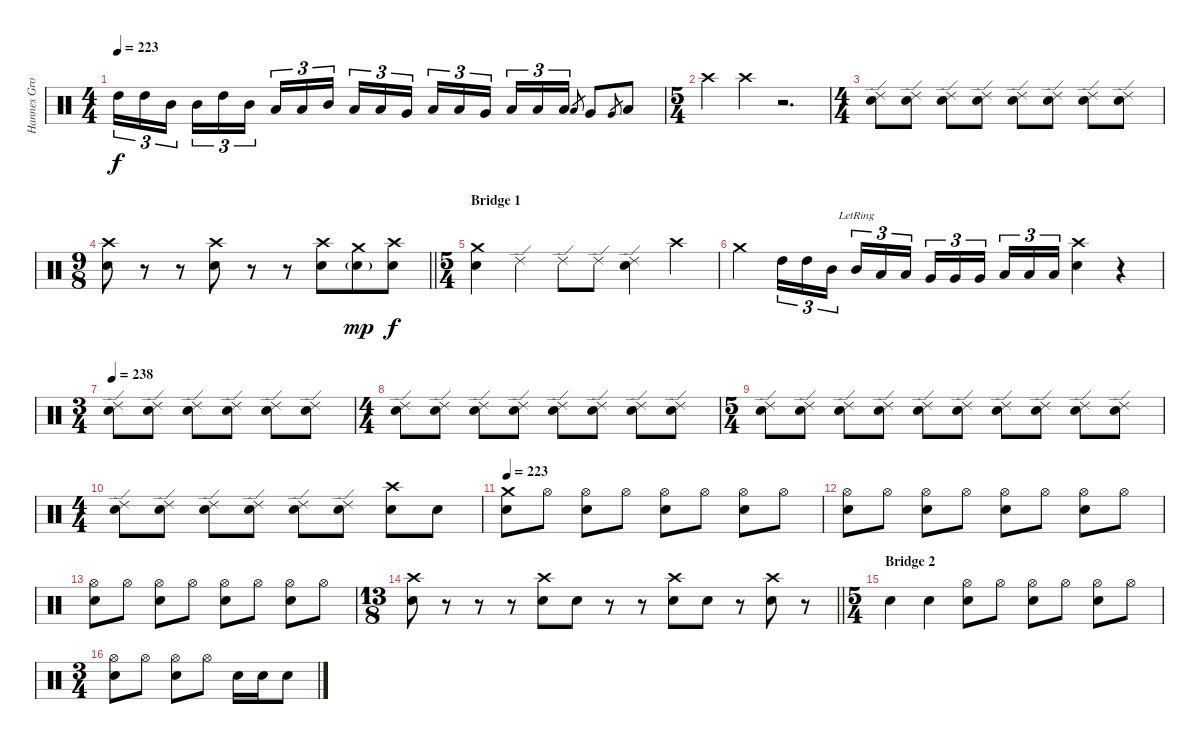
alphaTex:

\track ("Hannes Grossmann" "Hannes Gro") {instrument percussion}
\staff {score}
\articulation defaults
\ts (4 4)
\tempo 223
\clef neutral
\ks c "High Tom (hit)".16{tu (3 2) dy f} "High Tom (hit)".16{tu (3 2)} "Mid Tom (hit)".16{tu (3 2) beam splitsecondary} "Mid Tom (hit)".16{tu (3 2)} "High Tom (hit)".16{tu (3 2)} "Mid Tom (hit)".16{tu (3 2)} "Low Tom (hit)".16{tu (3 2)} "Low Tom (hit)".16{tu (3 2)} "Mid Tom (hit)".16{tu (3 2) beam splitsecondary} "Low Tom (hit)".16{tu (3 2)} "Low Tom (hit)".16{tu (3 2)} "Very Low Tom (hit)".16{tu (3 2)} "Low Tom (hit)".16{tu (3 2)} "Low Tom (hit)".16{tu (3 2)} "Very Low Tom (hit)".16{tu (3 2) beam splitsecondary} "Low Floor Tom (hit)".16{tu (3 2)} "Low Floor Tom (hit)".16{tu (3 2)} "Low Floor Tom (hit)".16{tu (3 2)} "Low Tom (hit)".8{gr} "Very Low Tom (hit)".8 "Very Low Tom (hit)".8{gr} "Low Floor Tom (hit)".8
|
\ts (5 4)
"Crash high (hit)".4 "Crash high (hit)".4 r.2{d} |
\ts (4 4)
("Ride (edge) 2" "Electric Snare (hit)").8 ("Ride (edge) 2" "Electric Snare (hit)").8 ("Ride (edge) 2" "Electric Snare (hit)").8 ("Ride (edge) 2" "Electric Snare (hit)").8 ("Ride (edge) 2" "Electric Snare (hit)").8 ("Ride (edge) 2" "Electric Snare (hit)").8 ("Ride (edge) 2" "Electric Snare (hit)").8 ("Ride (edge) 2" "Electric Snare (hit)").8 |
\ts (9 8)
\barLineRight lightlight
("Crash high (hit)" "Electric Snare (hit)").8 r.8 r.8 ("Crash high (hit)" "Electric Snare (hit)").8 r.8 r.8 ("Crash high (hit)" "Electric Snare (hit)").8 ("Crash medium (hit)" "Electric Snare (hit)"{g}).8{dy mp} ("Crash high (hit)" "Electric Snare (hit)").8{dy f} |
\ts (5 4)
\section ("" "Bridge 1")
("Crash medium (hit)" "Electric Snare (hit)").4 "Ride (edge) 2".4 "Ride (edge) 2".8 "Ride (edge) 2".8 ("Ride (edge) 2" "Electric Snare (hit)").4 "Crash high (hit)".4 |
"Crash medium (hit)".4 "High Tom (hit)".16{tu (3 2)} "High Tom (hit)".16{tu (3 2)} "Mid Tom (hit)".16{tu (3 2) beam splitsecondary} "Mid Tom (hit)"{lr}.16{tu (3 2)} "Low Tom (hit)".16{tu (3 2)} "Low Tom (hit)".16{tu (3 2)} "Very Low Tom (hit)".16{tu (3 2)} "Very Low Tom (hit)".16{tu (3 2)} "Very Low Tom (hit)".16{tu (3 2) beam splitsecondary} "Low Floor Tom (hit)".16{tu (3 2)} "Low Floor Tom (hit)".16{tu (3 2)} "Low Floor Tom (hit)".16{tu (3 2)} ("Crash high (hit)" "Electric Snare (hit)").4 r.4 |
\ts (3 4)
\tempo 238
("Ride (edge) 2" "Electric Snare (hit)").8 ("Ride (edge) 2" "Electric Snare (hit)").8 ("Ride (edge) 2" "Electric Snare (hit)").8 ("Ride (edge) 2" "Electric Snare (hit)").8 ("Ride (edge) 2" "Electric Snare (hit)").8 ("Ride (edge) 2" "Electric Snare (hit)").8 |
\ts (4 4)
("Ride (edge) 2" "Electric Snare (hit)").8 ("Ride (edge) 2" "Electric Snare (hit)").8 ("Ride (edge) 2" "Electric Snare (hit)").8 ("Ride (edge) 2" "Electric Snare (hit)").8 ("Ride (edge) 2" "Electric Snare (hit)").8 ("Ride (edge) 2" "Electric Snare (hit)").8 ("Ride (edge) 2" "Electric Snare (hit)").8 ("Ride (edge) 2" "Electric Snare (hit)").8 |
\ts (5 4)
("Ride (edge) 2" "Electric Snare (hit)").8 ("Ride (edge) 2" "Electric Snare (hit)").8 ("Ride (edge) 2" "Electric Snare (hit)").8 ("Ride (edge) 2" "Electric Snare (hit)").8 ("Ride (edge) 2" "Electric Snare (hit)").8 ("Ride (edge) 2" "Electric Snare (hit)").8 ("Ride (edge) 2" "Electric Snare (hit)").8 ("Ride (edge) 2" "Electric Snare (hit)").8 ("Ride (edge) 2" "Electric Snare (hit)").8 ("Ride (edge) 2" "Electric Snare (hit)").8 |
\ts (4 4)
("Ride (edge) 2" "Electric Snare (hit)").8 ("Ride (edge) 2" "Electric Snare (hit)").8 ("Ride (edge) 2" "Electric Snare (hit)").8 ("Ride (edge) 2" "Electric Snare (hit)").8 ("Ride (edge) 2" "Electric Snare (hit)").8 ("Ride (edge) 2" "Electric Snare (hit)").8 ("Crash high (hit)" "Electric Snare (hit)").8 "Electric Snare (hit)".8 |
\tempo 223
("Crash medium (hit)" "Electric Snare (hit)").8 "Hi-Hat (open)".8 ("Hi-Hat (open)" "Electric Snare (hit)").8 "Hi-Hat (open)".8 ("Hi-Hat (open)" "Electric Snare (hit)").8 "Hi-Hat (open)".8 ("Hi-Hat (open)" "Electric Snare (hit)").8 "Hi-Hat (open)".8 |
("Hi-Hat (open)" "Electric Snare (hit)").8 "Hi-Hat (open)".8 ("Hi-Hat (open)" "Electric Snare (hit)").8 "Hi-Hat (open)".8 ("Hi-Hat (open)" "Electric Snare (hit)").8 "Hi-Hat (open)".8 ("Hi-Hat (open)" "Electric Snare (hit)").8 "Hi-Hat (open)".8 |
("Hi-Hat (open)" "Electric Snare (hit)").8 "Hi-Hat (open)".8 ("Hi-Hat (open)" "Electric Snare (hit)").8 "Hi-Hat (open)".8 ("Hi-Hat (open)" "Electric Snare (hit)").8 "Hi-Hat (open)".8 ("Hi-Hat (open)" "Electric Snare (hit)").8 "Hi-Hat (open)".8 |
\ts (13 8)
\barLineRight lightlight
("Crash high (hit)" "Electric Snare (hit)").8 r.8 r.8 r.8 ("Crash high (hit)" "Electric Snare (hit)").8 "Electric Snare (hit)".8 r.8 r.8 ("Crash high (hit)" "Electric Snare (hit)").8 "Electric Snare (hit)".8 r.8 ("Crash high (hit)" "Electric Snare (hit)").8 r.8 |
\ts (5 4)
\section ("" "Bridge 2")
"Electric Snare (hit)".4 "Electric Snare (hit)".4 ("Hi-Hat (open)" "Electric Snare (hit)").8 "Hi-Hat (open)".8 ("Hi-Hat (open)" "Electric Snare (hit)").8 "Hi-Hat (open)".8 ("Hi-Hat (open)" "Electric Snare (hit)").8 "Hi-Hat (open)".8 |
\ts (3 4)
("Hi-Hat (open)" "Electric Snare (hit)").8 "Hi-Hat (open)".8 ("Hi-Hat (open)" "Electric Snare (hit)").8 "Hi-Hat (open)".8 "Electric Snare (hit)".16 "Electric Snare (hit)".16 "Electric Snare (hit)".8
